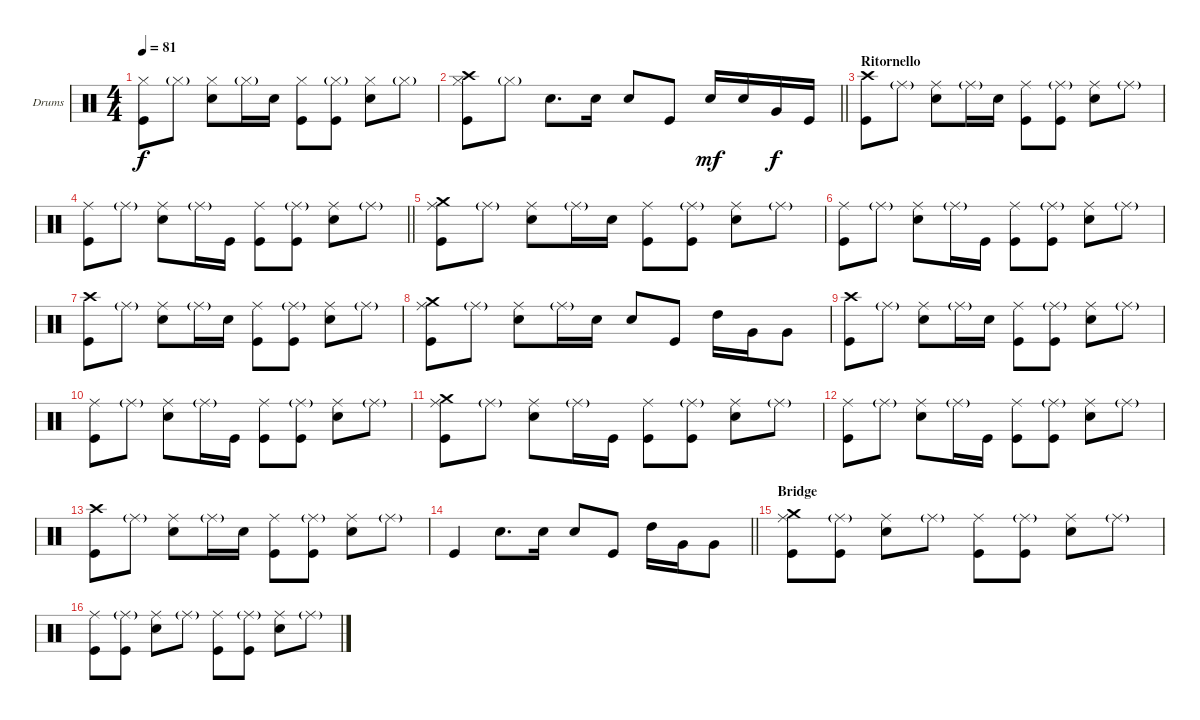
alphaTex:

\bracketExtendMode groupsimilarinstruments
\firstSystemTrackNameOrientation horizontal
\otherSystemsTrackNameOrientation horizontal
\track ("Batteria" "Drums") {instrument percussion}
\staff {score}
\articulation defaults
\ts (4 4)
\tempo 81
\clef neutral
\ks c
("Kick (hit)" "Hi-Hat (closed)").8{dy f} "Hi-Hat (closed)"{g}.8 ("Snare (hit) 2" "Hi-Hat (closed)").8 "Hi-Hat (closed)"{g}.16 "Snare (hit) 2".16 ("Kick (hit)" "Hi-Hat (closed)").8 ("Kick (hit)" "Hi-Hat (closed)"{g}).8 ("Snare (hit) 2" "Hi-Hat (closed)").8 "Hi-Hat (closed)"{g}.8 |
\barLineRight lightlight
("Kick (hit)" "Hi-Hat (closed)" "Crash high (hit)").8 "Hi-Hat (closed)"{g}.8 "Snare (hit) 2".8{d} "Snare (hit) 2".16 "Snare (hit) 2".8 "Kick (hit)".8 "Snare (hit) 2".16{dy mf} "Snare (hit) 2".16 "Very Low Tom (hit)".16{dy f} "Kick (hit)".16 |
\section ("" "Ritornello")
("Kick (hit)" "Crash high (hit)").8 "Ride (middle)"{g}.8 ("Snare (hit) 2" "Ride (middle)").8 "Ride (middle)"{g}.16 "Snare (hit) 2".16 ("Ride (middle)" "Kick (hit)").8 ("Ride (middle)"{g} "Kick (hit)").8 ("Ride (middle)" "Snare (hit) 2").8 "Ride (middle)"{g}.8 |
\barLineRight lightlight
("Kick (hit)" "Ride (middle)").8 "Ride (middle)"{g}.8 ("Snare (hit) 2" "Ride (middle)").8 "Ride (middle)"{g}.16 "Kick (hit)".16 ("Ride (middle)" "Kick (hit)").8 ("Ride (middle)"{g} "Kick (hit)").8 ("Ride (middle)" "Snare (hit) 2").8 "Ride (middle)"{g}.8 |
("Kick (hit)" "Ride (middle)" "Crash medium (hit)").8 "Ride (middle)"{g}.8 ("Snare (hit) 2" "Ride (middle)").8 "Ride (middle)"{g}.16 "Snare (hit) 2".16 ("Ride (middle)" "Kick (hit)").8 ("Ride (middle)"{g} "Kick (hit)").8 ("Ride (middle)" "Snare (hit) 2").8 "Ride (middle)"{g}.8 |
("Kick (hit)" "Ride (middle)").8 "Ride (middle)"{g}.8 ("Snare (hit) 2" "Ride (middle)").8 "Ride (middle)"{g}.16 "Kick (hit)".16 ("Ride (middle)" "Kick (hit)").8 ("Ride (middle)"{g} "Kick (hit)").8 ("Ride (middle)" "Snare (hit) 2").8 "Ride (middle)"{g}.8 |
("Kick (hit)" "Crash high (hit)").8 "Ride (middle)"{g}.8 ("Snare (hit) 2" "Ride (middle)").8 "Ride (middle)"{g}.16 "Snare (hit) 2".16 ("Ride (middle)" "Kick (hit)").8 ("Ride (middle)"{g} "Kick (hit)").8 ("Ride (middle)" "Snare (hit) 2").8 "Ride (middle)"{g}.8 |
("Kick (hit)" "Ride (middle)" "Crash medium (hit)").8 "Ride (middle)"{g}.8 ("Snare (hit) 2" "Ride (middle)").8 "Ride (middle)"{g}.16 "Snare (hit) 2".16 "Snare (hit) 2".8 "Kick (hit)".8 "High Tom (hit)".16 "Very Low Tom (hit)".16 "Very Low Tom (hit)".8 |
("Kick (hit)" "Crash high (hit)").8 "Ride (middle)"{g}.8 ("Snare (hit) 2" "Ride (middle)").8 "Ride (middle)"{g}.16 "Snare (hit) 2".16 ("Ride (middle)" "Kick (hit)").8 ("Ride (middle)"{g} "Kick (hit)").8 ("Ride (middle)" "Snare (hit) 2").8 "Ride (middle)"{g}.8 |
("Kick (hit)" "Ride (middle)").8 "Ride (middle)"{g}.8 ("Snare (hit) 2" "Ride (middle)").8 "Ride (middle)"{g}.16 "Kick (hit)".16 ("Ride (middle)" "Kick (hit)").8 ("Ride (middle)"{g} "Kick (hit)").8 ("Ride (middle)" "Snare (hit) 2").8 "Ride (middle)"{g}.8 |
("Kick (hit)" "Ride (middle)" "Crash medium (hit)").8 "Ride (middle)"{g}.8 ("Snare (hit) 2" "Ride (middle)").8 "Ride (middle)"{g}.16 "Kick (hit)".16 ("Ride (middle)" "Kick (hit)").8 ("Ride (middle)"{g} "Kick (hit)").8 ("Ride (middle)" "Snare (hit) 2").8 "Ride (middle)"{g}.8 |
("Kick (hit)" "Ride (middle)").8 "Ride (middle)"{g}.8 ("Snare (hit) 2" "Ride (middle)").8 "Ride (middle)"{g}.16 "Kick (hit)".16 ("Ride (middle)" "Kick (hit)").8 ("Ride (middle)"{g} "Kick (hit)").8 ("Ride (middle)" "Snare (hit) 2").8 "Ride (middle)"{g}.8 |
("Kick (hit)" "Crash high (hit)").8 "Ride (middle)"{g}.8 ("Snare (hit) 2" "Ride (middle)").8 "Ride (middle)"{g}.16 "Snare (hit) 2".16 ("Ride (middle)" "Kick (hit)").8 ("Ride (middle)"{g} "Kick (hit)").8 ("Ride (middle)" "Snare (hit) 2").8 "Ride (middle)"{g}.8 |
\barLineRight lightlight "Kick (hit)".4 "Snare (hit) 2".8{d} "Snare (hit) 2".16 "Snare (hit) 2".8 "Kick (hit)".8 "High Tom (hit)".16 "Very Low Tom (hit)".16 "Very Low Tom (hit)".8
|
\section ("" "Bridge")
("Ride (middle)" "Kick (hit)" "Crash medium (hit)").8 ("Ride (middle)"{g} "Kick (hit)").8 ("Ride (middle)" "Snare (hit) 2").8 "Ride (middle)"{g}.8 ("Ride (middle)" "Kick (hit)").8 ("Ride (middle)"{g} "Kick (hit)").8 ("Ride (middle)" "Snare (hit) 2").8 "Ride (middle)"{g}.8 |
("Ride (middle)" "Kick (hit)").8 ("Ride (middle)"{g} "Kick (hit)").8 ("Ride (middle)" "Snare (hit) 2").8 "Ride (middle)"{g}.8 ("Ride (middle)" "Kick (hit)").8 ("Ride (middle)"{g} "Kick (hit)").8 ("Ride (middle)" "Snare (hit) 2").8 "Ride (middle)"{g}.8
